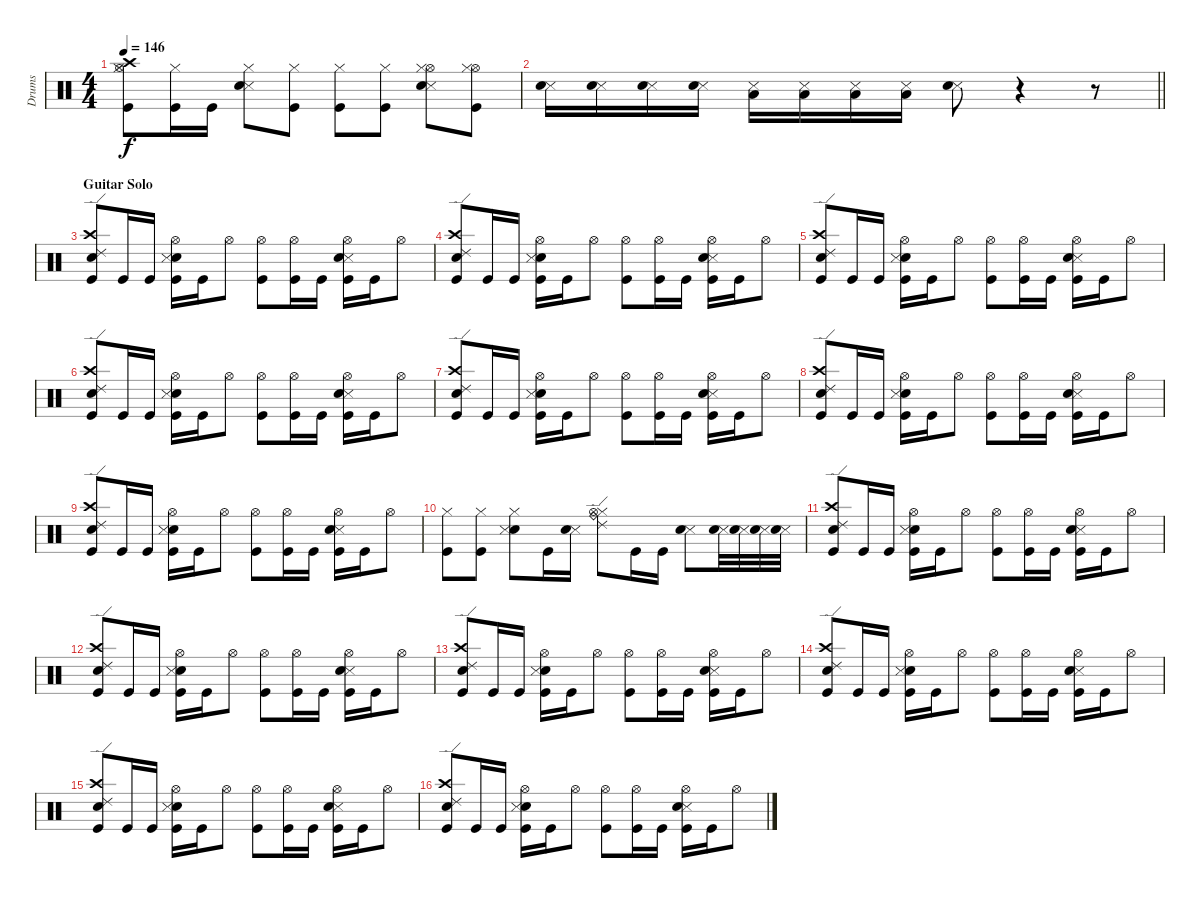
\track ("Drums" "Drums") {instrument percussion}
\staff {score}
\articulation defaults
\ts (4 4)
\tempo 146
\clef neutral
\ks c
("Kick (hit)" "Hi-Hat (closed)" "Hi-Hat (open)" "Crash high (hit)").8{dy f} ("Kick (hit)" "Hi-Hat (closed)").16 "Kick (hit)".16 ("Snare (side stick) 3" "Electric Snare (hit)" "Hi-Hat (closed)").8 ("Kick (hit)" "Hi-Hat (closed)").8 ("Kick (hit)" "Hi-Hat (closed)").8 ("Kick (hit)" "Hi-Hat (closed)").8 ("Hi-Hat (open)" "Snare (side stick) 3" "Electric Snare (hit)" "Hi-Hat (closed)").8 ("Kick (hit)" "Hi-Hat (open)" "Hi-Hat (closed)").8 |
\barLineRight lightlight
("Snare (side stick) 3" "Electric Snare (hit)").16 ("Snare (side stick) 3" "Electric Snare (hit)").16 ("Snare (side stick) 3" "Electric Snare (hit)").16 ("Snare (side stick) 3" "Electric Snare (hit)").16 ("Snare (side stick) 3" "Low Floor Tom (hit)").16 ("Snare (side stick) 3" "Low Floor Tom (hit)").16 ("Snare (side stick) 3" "Low Floor Tom (hit)").16 ("Snare (side stick) 3" "Low Floor Tom (hit)").16 ("Snare (side stick) 3" "Electric Snare (hit)").8 r.4 r.8 |
\section ("" "Guitar Solo")
("Crash high (hit)" "Ride (edge) 2" "Kick (hit)" "Snare (hit) 2").8 "Kick (hit)".16 "Kick (hit)".16 ("Electric Snare (hit)" "Snare (side stick) 3" "Kick (hit)" "Hi-Hat (open)").16 "Kick (hit)".16 "Hi-Hat (open)".8 ("Kick (hit)" "Hi-Hat (open)").8 ("Kick (hit)" "Hi-Hat (open)").16 "Kick (hit)".16 ("Snare (side stick) 3" "Electric Snare (hit)" "Kick (hit)" "Hi-Hat (open)").16 "Kick (hit)".16 "Hi-Hat (open)".8 |
("Crash high (hit)" "Ride (edge) 2" "Kick (hit)" "Snare (hit) 2").8 "Kick (hit)".16 "Kick (hit)".16 ("Electric Snare (hit)" "Snare (side stick) 3" "Kick (hit)" "Hi-Hat (open)").16 "Kick (hit)".16 "Hi-Hat (open)".8 ("Kick (hit)" "Hi-Hat (open)").8 ("Kick (hit)" "Hi-Hat (open)").16 "Kick (hit)".16 ("Snare (side stick) 3" "Electric Snare (hit)" "Kick (hit)" "Hi-Hat (open)").16 "Kick (hit)".16 "Hi-Hat (open)".8 |
("Crash high (hit)" "Ride (edge) 2" "Kick (hit)" "Snare (hit) 2").8 "Kick (hit)".16 "Kick (hit)".16 ("Electric Snare (hit)" "Snare (side stick) 3" "Kick (hit)" "Hi-Hat (open)").16 "Kick (hit)".16 "Hi-Hat (open)".8 ("Kick (hit)" "Hi-Hat (open)").8 ("Kick (hit)" "Hi-Hat (open)").16 "Kick (hit)".16 ("Snare (side stick) 3" "Electric Snare (hit)" "Kick (hit)" "Hi-Hat (open)").16 "Kick (hit)".16 "Hi-Hat (open)".8 |
("Crash high (hit)" "Ride (edge) 2" "Kick (hit)" "Snare (hit) 2").8 "Kick (hit)".16 "Kick (hit)".16 ("Electric Snare (hit)" "Snare (side stick) 3" "Kick (hit)" "Hi-Hat (open)").16 "Kick (hit)".16 "Hi-Hat (open)".8 ("Kick (hit)" "Hi-Hat (open)").8 ("Kick (hit)" "Hi-Hat (open)").16 "Kick (hit)".16 ("Snare (side stick) 3" "Electric Snare (hit)" "Kick (hit)" "Hi-Hat (open)").16 "Kick (hit)".16 "Hi-Hat (open)".8 |
("Crash high (hit)" "Ride (edge) 2" "Kick (hit)" "Snare (hit) 2").8 "Kick (hit)".16 "Kick (hit)".16 ("Electric Snare (hit)" "Snare (side stick) 3" "Kick (hit)" "Hi-Hat (open)").16 "Kick (hit)".16 "Hi-Hat (open)".8 ("Kick (hit)" "Hi-Hat (open)").8 ("Kick (hit)" "Hi-Hat (open)").16 "Kick (hit)".16 ("Snare (side stick) 3" "Electric Snare (hit)" "Kick (hit)" "Hi-Hat (open)").16 "Kick (hit)".16 "Hi-Hat (open)".8 |
("Crash high (hit)" "Ride (edge) 2" "Kick (hit)" "Snare (hit) 2").8 "Kick (hit)".16 "Kick (hit)".16 ("Electric Snare (hit)" "Snare (side stick) 3" "Kick (hit)" "Hi-Hat (open)").16 "Kick (hit)".16 "Hi-Hat (open)".8 ("Kick (hit)" "Hi-Hat (open)").8 ("Kick (hit)" "Hi-Hat (open)").16 "Kick (hit)".16 ("Snare (side stick) 3" "Electric Snare (hit)" "Kick (hit)" "Hi-Hat (open)").16 "Kick (hit)".16 "Hi-Hat (open)".8 |
("Crash high (hit)" "Ride (edge) 2" "Kick (hit)" "Snare (hit) 2").8 "Kick (hit)".16 "Kick (hit)".16 ("Electric Snare (hit)" "Snare (side stick) 3" "Kick (hit)" "Hi-Hat (open)").16 "Kick (hit)".16 "Hi-Hat (open)".8 ("Kick (hit)" "Hi-Hat (open)").8 ("Kick (hit)" "Hi-Hat (open)").16 "Kick (hit)".16 ("Snare (side stick) 3" "Electric Snare (hit)" "Kick (hit)" "Hi-Hat (open)").16 "Kick (hit)".16 "Hi-Hat (open)".8 |
("Hi-Hat (closed)" "Kick (hit)").8 ("Hi-Hat (closed)" "Kick (hit)").8 ("Hi-Hat (closed)" "Electric Snare (hit)" "Snare (side stick) 3").8 "Kick (hit)".16 ("Snare (side stick) 3" "Electric Snare (hit)").16 ("Hi-Hat (closed)" "Hi-Hat (open)" "Ride (bell)" "Ride (edge) 2").8 "Kick (hit)".16 "Kick (hit)".16 ("Snare (side stick) 3" "Electric Snare (hit)").8 ("Snare (side stick) 3" "Electric Snare (hit)").32 ("Snare (side stick) 3" "Electric Snare (hit)").32 ("Snare (side stick) 3" "Electric Snare (hit)").32 ("Snare (side stick) 3" "Electric Snare (hit)").32 |
("Crash high (hit)" "Ride (edge) 2" "Kick (hit)" "Snare (hit) 2").8 "Kick (hit)".16 "Kick (hit)".16 ("Electric Snare (hit)" "Snare (side stick) 3" "Kick (hit)" "Hi-Hat (open)").16 "Kick (hit)".16 "Hi-Hat (open)".8 ("Kick (hit)" "Hi-Hat (open)").8 ("Kick (hit)" "Hi-Hat (open)").16 "Kick (hit)".16 ("Snare (side stick) 3" "Electric Snare (hit)" "Kick (hit)" "Hi-Hat (open)").16 "Kick (hit)".16 "Hi-Hat (open)".8 |
("Crash high (hit)" "Ride (edge) 2" "Kick (hit)" "Snare (hit) 2").8 "Kick (hit)".16 "Kick (hit)".16 ("Electric Snare (hit)" "Snare (side stick) 3" "Kick (hit)" "Hi-Hat (open)").16 "Kick (hit)".16 "Hi-Hat (open)".8 ("Kick (hit)" "Hi-Hat (open)").8 ("Kick (hit)" "Hi-Hat (open)").16 "Kick (hit)".16 ("Snare (side stick) 3" "Electric Snare (hit)" "Kick (hit)" "Hi-Hat (open)").16 "Kick (hit)".16 "Hi-Hat (open)".8 |
("Crash high (hit)" "Ride (edge) 2" "Kick (hit)" "Snare (hit) 2").8 "Kick (hit)".16 "Kick (hit)".16 ("Electric Snare (hit)" "Snare (side stick) 3" "Kick (hit)" "Hi-Hat (open)").16 "Kick (hit)".16 "Hi-Hat (open)".8 ("Kick (hit)" "Hi-Hat (open)").8 ("Kick (hit)" "Hi-Hat (open)").16 "Kick (hit)".16 ("Snare (side stick) 3" "Electric Snare (hit)" "Kick (hit)" "Hi-Hat (open)").16 "Kick (hit)".16 "Hi-Hat (open)".8 |
("Crash high (hit)" "Ride (edge) 2" "Kick (hit)" "Snare (hit) 2").8 "Kick (hit)".16 "Kick (hit)".16 ("Electric Snare (hit)" "Snare (side stick) 3" "Kick (hit)" "Hi-Hat (open)").16 "Kick (hit)".16 "Hi-Hat (open)".8 ("Kick (hit)" "Hi-Hat (open)").8 ("Kick (hit)" "Hi-Hat (open)").16 "Kick (hit)".16 ("Snare (side stick) 3" "Electric Snare (hit)" "Kick (hit)" "Hi-Hat (open)").16 "Kick (hit)".16 "Hi-Hat (open)".8 |
("Crash high (hit)" "Ride (edge) 2" "Kick (hit)" "Snare (hit) 2").8 "Kick (hit)".16 "Kick (hit)".16 ("Electric Snare (hit)" "Snare (side stick) 3" "Kick (hit)" "Hi-Hat (open)").16 "Kick (hit)".16 "Hi-Hat (open)".8 ("Kick (hit)" "Hi-Hat (open)").8 ("Kick (hit)" "Hi-Hat (open)").16 "Kick (hit)".16 ("Snare (side stick) 3" "Electric Snare (hit)" "Kick (hit)" "Hi-Hat (open)").16 "Kick (hit)".16 "Hi-Hat (open)".8 |
("Crash high (hit)" "Ride (edge) 2" "Kick (hit)" "Snare (hit) 2").8 "Kick (hit)".16 "Kick (hit)".16 ("Electric Snare (hit)" "Snare (side stick) 3" "Kick (hit)" "Hi-Hat (open)").16 "Kick (hit)".16 "Hi-Hat (open)".8 ("Kick (hit)" "Hi-Hat (open)").8 ("Kick (hit)" "Hi-Hat (open)").16 "Kick (hit)".16 ("Snare (side stick) 3" "Electric Snare (hit)" "Kick (hit)" "Hi-Hat (open)").16 "Kick (hit)".16 "Hi-Hat (open)".8
